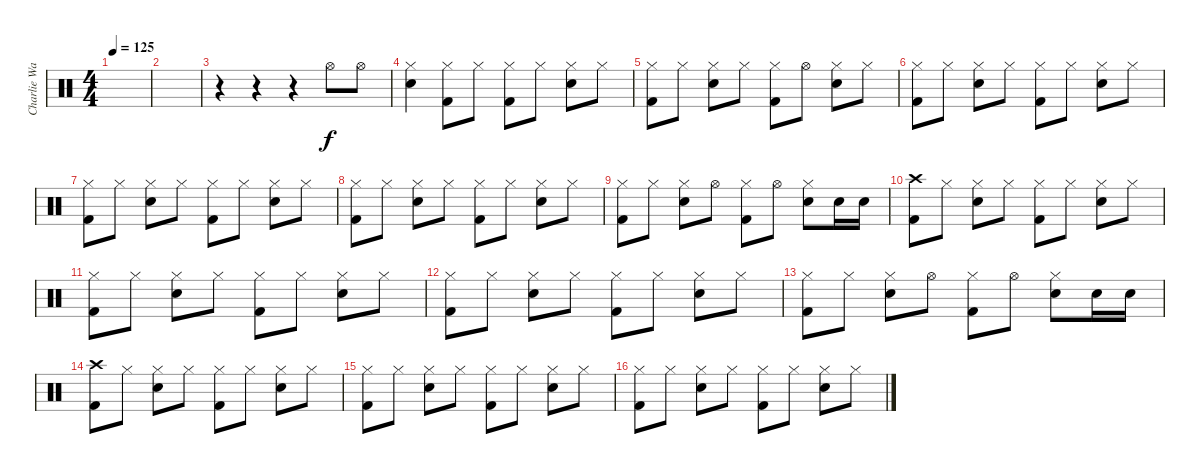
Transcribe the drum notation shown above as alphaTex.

\track ("Charlie Watson" "Charlie Wa") {instrument percussion}
\staff {score}
\articulation defaults
\ts (4 4)
\tempo 125
\clef neutral
\ks c
|
|
r.4 r.4 r.4 "Hi-Hat (open)".8 "Hi-Hat (open)".8 |
("Hi-Hat (closed)" "Snare (hit) 2").4 ("Hi-Hat (closed)" "Kick (hit) 2").8 "Hi-Hat (closed)".8 ("Hi-Hat (closed)" "Kick (hit) 2").8 "Hi-Hat (closed)".8 ("Hi-Hat (closed)" "Snare (hit) 2").8 "Hi-Hat (closed)".8 |
("Hi-Hat (closed)" "Kick (hit) 2").8 "Hi-Hat (closed)".8 ("Hi-Hat (closed)" "Snare (hit) 2").8 "Hi-Hat (closed)".8 ("Hi-Hat (closed)" "Kick (hit) 2").8 "Hi-Hat (open)".8 ("Hi-Hat (closed)" "Snare (hit) 2").8 "Hi-Hat (closed)".8 |
("Hi-Hat (closed)" "Kick (hit) 2").8 "Hi-Hat (closed)".8 ("Hi-Hat (closed)" "Snare (hit) 2").8 "Hi-Hat (closed)".8 ("Hi-Hat (closed)" "Kick (hit) 2").8 "Hi-Hat (closed)".8 ("Hi-Hat (closed)" "Snare (hit) 2").8 "Hi-Hat (closed)".8 |
("Hi-Hat (closed)" "Kick (hit) 2").8 "Hi-Hat (closed)".8 ("Hi-Hat (closed)" "Snare (hit) 2").8 "Hi-Hat (closed)".8 ("Hi-Hat (closed)" "Kick (hit) 2").8 "Hi-Hat (closed)".8 ("Hi-Hat (closed)" "Snare (hit) 2").8 "Hi-Hat (closed)".8 |
("Hi-Hat (closed)" "Kick (hit) 2").8 "Hi-Hat (closed)".8 ("Hi-Hat (closed)" "Snare (hit) 2").8 "Hi-Hat (closed)".8 ("Hi-Hat (closed)" "Kick (hit) 2").8 "Hi-Hat (closed)".8 ("Hi-Hat (closed)" "Snare (hit) 2").8 "Hi-Hat (closed)".8 |
("Hi-Hat (closed)" "Kick (hit) 2").8 "Hi-Hat (closed)".8 ("Hi-Hat (closed)" "Snare (hit) 2").8 "Hi-Hat (open)".8 ("Hi-Hat (closed)" "Kick (hit) 2").8 "Hi-Hat (open)".8 ("Hi-Hat (closed)" "Snare (hit) 2").8 "Snare (hit) 2".16 "Snare (hit) 2".16 |
("Crash high (hit)" "Kick (hit) 2").8 "Hi-Hat (closed)".8 ("Hi-Hat (closed)" "Snare (hit) 2").8 "Hi-Hat (closed)".8 ("Hi-Hat (closed)" "Kick (hit) 2").8 "Hi-Hat (closed)".8 ("Hi-Hat (closed)" "Snare (hit) 2").8 "Hi-Hat (closed)".8 |
("Hi-Hat (closed)" "Kick (hit) 2").8 "Hi-Hat (closed)".8 ("Hi-Hat (closed)" "Snare (hit) 2").8 "Hi-Hat (closed)".8 ("Hi-Hat (closed)" "Kick (hit) 2").8 "Hi-Hat (closed)".8 ("Hi-Hat (closed)" "Snare (hit) 2").8 "Hi-Hat (closed)".8 |
("Hi-Hat (closed)" "Kick (hit) 2").8 "Hi-Hat (closed)".8 ("Hi-Hat (closed)" "Snare (hit) 2").8 "Hi-Hat (closed)".8 ("Hi-Hat (closed)" "Kick (hit) 2").8 "Hi-Hat (closed)".8 ("Hi-Hat (closed)" "Snare (hit) 2").8 "Hi-Hat (closed)".8 |
("Hi-Hat (closed)" "Kick (hit) 2").8 "Hi-Hat (closed)".8 ("Hi-Hat (closed)" "Snare (hit) 2").8 "Hi-Hat (open)".8 ("Hi-Hat (closed)" "Kick (hit) 2").8 "Hi-Hat (open)".8 ("Hi-Hat (closed)" "Snare (hit) 2").8 "Snare (hit) 2".16 "Snare (hit) 2".16 |
("Crash high (hit)" "Kick (hit) 2").8 "Hi-Hat (closed)".8 ("Hi-Hat (closed)" "Snare (hit) 2").8 "Hi-Hat (closed)".8 ("Hi-Hat (closed)" "Kick (hit) 2").8 "Hi-Hat (closed)".8 ("Hi-Hat (closed)" "Snare (hit) 2").8 "Hi-Hat (closed)".8 |
("Hi-Hat (closed)" "Kick (hit) 2").8 "Hi-Hat (closed)".8 ("Hi-Hat (closed)" "Snare (hit) 2").8 "Hi-Hat (closed)".8 ("Hi-Hat (closed)" "Kick (hit) 2").8 "Hi-Hat (closed)".8 ("Hi-Hat (closed)" "Snare (hit) 2").8 "Hi-Hat (closed)".8 |
("Hi-Hat (closed)" "Kick (hit) 2").8 "Hi-Hat (closed)".8 ("Hi-Hat (closed)" "Snare (hit) 2").8 "Hi-Hat (closed)".8 ("Hi-Hat (closed)" "Kick (hit) 2").8 "Hi-Hat (closed)".8 ("Hi-Hat (closed)" "Snare (hit) 2").8 "Hi-Hat (closed)".8
